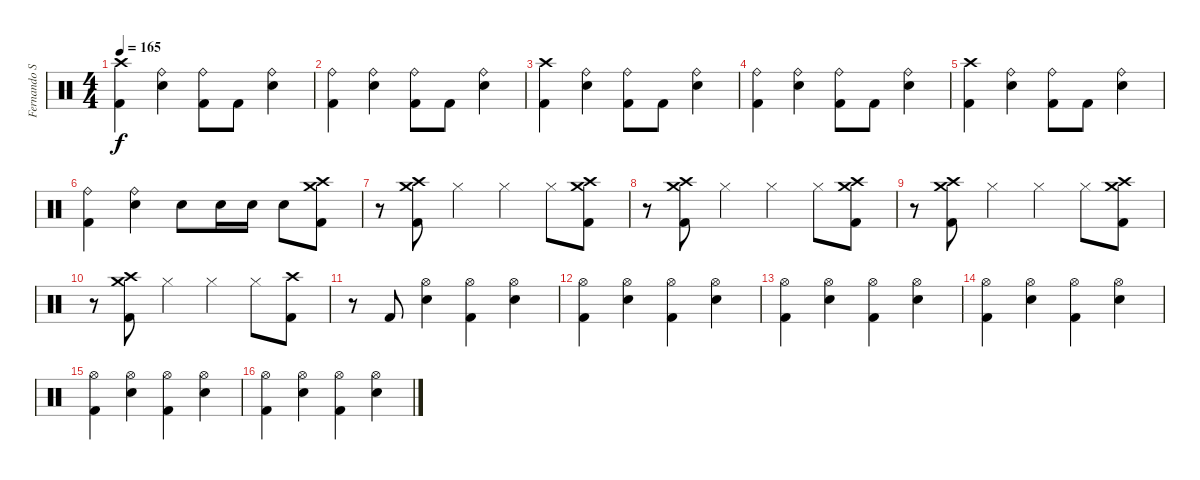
\track ("Fernando Scarcella" "Fernando S") {instrument percussion}
\staff {score}
\articulation defaults
\ts (4 4)
\tempo 165
\clef neutral
\ks c
("Crash high (hit)" "Kick (hit) 2").4{dy f} ("Ride (bell)" "Snare (hit) 2").4 ("Ride (bell)" "Kick (hit) 2").8 "Kick (hit) 2".8 ("Ride (bell)" "Snare (hit) 2").4 |
("Ride (bell)" "Kick (hit) 2").4 ("Ride (bell)" "Snare (hit) 2").4 ("Ride (bell)" "Kick (hit) 2").8 "Kick (hit) 2".8 ("Ride (bell)" "Snare (hit) 2").4 |
("Crash high (hit)" "Kick (hit) 2").4 ("Ride (bell)" "Snare (hit) 2").4 ("Ride (bell)" "Kick (hit) 2").8 "Kick (hit) 2".8 ("Ride (bell)" "Snare (hit) 2").4 |
("Ride (bell)" "Kick (hit) 2").4 ("Ride (bell)" "Snare (hit) 2").4 ("Ride (bell)" "Kick (hit) 2").8 "Kick (hit) 2".8 ("Ride (bell)" "Snare (hit) 2").4 |
("Crash high (hit)" "Kick (hit) 2").4 ("Ride (bell)" "Snare (hit) 2").4 ("Ride (bell)" "Kick (hit) 2").8 "Kick (hit) 2".8 ("Ride (bell)" "Snare (hit) 2").4 |
("Ride (bell)" "Kick (hit) 2").4 ("Ride (bell)" "Snare (hit) 2").4 "Snare (hit) 2".8 "Snare (hit) 2".16 "Snare (hit) 2".16 "Snare (hit) 2".8 ("Crash medium (hit)" "Crash high (hit)" "Kick (hit) 2").8 |
r.8 ("Crash medium (hit)" "Crash high (hit)" "Kick (hit) 2").8 "Hi-Hat (closed)".4 "Hi-Hat (closed)".4 "Hi-Hat (closed)".8 ("Crash medium (hit)" "Crash high (hit)" "Kick (hit) 2").8 |
r.8 ("Crash medium (hit)" "Crash high (hit)" "Kick (hit) 2").8 "Hi-Hat (closed)".4 "Hi-Hat (closed)".4 "Hi-Hat (closed)".8 ("Crash medium (hit)" "Crash high (hit)" "Kick (hit) 2").8 |
r.8 ("Crash medium (hit)" "Crash high (hit)" "Kick (hit) 2").8 "Hi-Hat (closed)".4 "Hi-Hat (closed)".4 "Hi-Hat (closed)".8 ("Crash medium (hit)" "Crash high (hit)" "Kick (hit) 2").8 |
r.8 ("Crash medium (hit)" "Crash high (hit)" "Kick (hit) 2").8 "Hi-Hat (closed)".4 "Hi-Hat (closed)".4 "Hi-Hat (closed)".8 ("Crash high (hit)" "Kick (hit) 2").8 |
r.8 "Kick (hit) 2".8 ("Hi-Hat (open)" "Snare (hit) 2").4 ("Hi-Hat (open)" "Kick (hit) 2").4 ("Hi-Hat (open)" "Snare (hit) 2").4 |
("Hi-Hat (open)" "Kick (hit) 2").4 ("Hi-Hat (open)" "Snare (hit) 2").4 ("Hi-Hat (open)" "Kick (hit) 2").4 ("Hi-Hat (open)" "Snare (hit) 2").4 |
("Hi-Hat (open)" "Kick (hit) 2").4 ("Hi-Hat (open)" "Snare (hit) 2").4 ("Hi-Hat (open)" "Kick (hit) 2").4 ("Hi-Hat (open)" "Snare (hit) 2").4 |
("Hi-Hat (open)" "Kick (hit) 2").4 ("Hi-Hat (open)" "Snare (hit) 2").4 ("Hi-Hat (open)" "Kick (hit) 2").4 ("Hi-Hat (open)" "Snare (hit) 2").4 |
("Hi-Hat (open)" "Kick (hit) 2").4 ("Hi-Hat (open)" "Snare (hit) 2").4 ("Hi-Hat (open)" "Kick (hit) 2").4 ("Hi-Hat (open)" "Snare (hit) 2").4 |
("Hi-Hat (open)" "Kick (hit) 2").4 ("Hi-Hat (open)" "Snare (hit) 2").4 ("Hi-Hat (open)" "Kick (hit) 2").4 ("Hi-Hat (open)" "Snare (hit) 2").4
